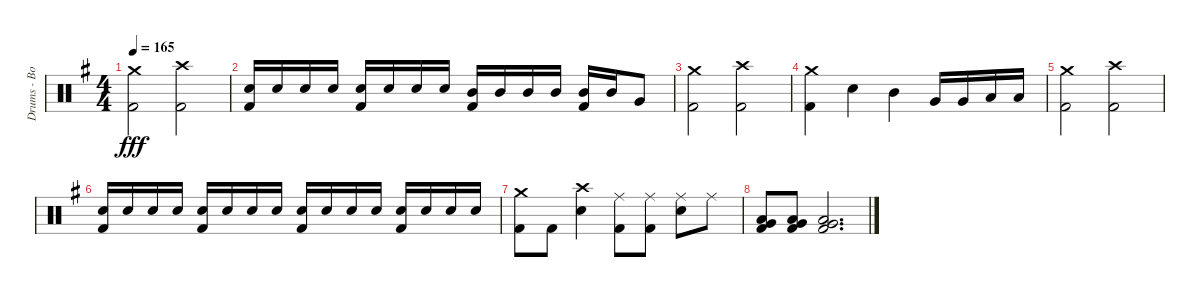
\track ("Drums - Bobby Schayer" "Drums - Bo") {instrument percussion}
\staff {score}
\articulation defaults
\ts (4 4)
\tempo 165
\clef neutral
\ks g
("Crash medium (hit)" "Kick (hit) 2").2{dy fff} ("Crash high (hit)" "Kick (hit) 2").2 |
("Electric Snare (hit)" "Kick (hit) 2").16 "Electric Snare (hit)".16 "Electric Snare (hit)".16 "Electric Snare (hit)".16 ("Electric Snare (hit)" "Kick (hit) 2").16 "Electric Snare (hit)".16 "Electric Snare (hit)".16 "Electric Snare (hit)".16 ("Mid Tom (hit)" "Kick (hit) 2").16 "Mid Tom (hit)".16 "Mid Tom (hit)".16 "Mid Tom (hit)".16 ("Mid Tom (hit)" "Kick (hit) 2").16 "Mid Tom (hit)".16 "Very Low Tom (hit)".8 |
("Crash medium (hit)" "Kick (hit) 2").2 ("Crash high (hit)" "Kick (hit) 2").2 |
("Crash medium (hit)" "Kick (hit) 2").4 "Electric Snare (hit)".4 "Mid Tom (hit)".4 "Very Low Tom (hit)".16 "Very Low Tom (hit)".16 "Low Floor Tom (hit)".16 "Low Floor Tom (hit)".16 |
("Crash medium (hit)" "Kick (hit) 2").2 ("Crash high (hit)" "Kick (hit) 2").2 |
("Electric Snare (hit)" "Kick (hit) 2").16 "Electric Snare (hit)".16 "Electric Snare (hit)".16 "Electric Snare (hit)".16 ("Electric Snare (hit)" "Kick (hit) 2").16 "Electric Snare (hit)".16 "Electric Snare (hit)".16 "Electric Snare (hit)".16 ("Electric Snare (hit)" "Kick (hit) 2").16 "Electric Snare (hit)".16 "Electric Snare (hit)".16 "Electric Snare (hit)".16 ("Electric Snare (hit)" "Kick (hit) 2").16 "Electric Snare (hit)".16 "Electric Snare (hit)".16 "Electric Snare (hit)".16 |
("Crash medium (hit)" "Kick (hit) 2").8 "Kick (hit) 2".8 ("Crash high (hit)" "Electric Snare (hit)").4 ("Ride (middle)" "Kick (hit) 2").8 ("Ride (middle)" "Kick (hit) 2").8 ("Ride (middle)" "Electric Snare (hit)").8 "Ride (middle)".8 |
("Very Low Tom (hit)" "Low Floor Tom (hit)" "Kick (hit) 2").8 ("Very Low Tom (hit)" "Low Floor Tom (hit)" "Kick (hit) 2").8 ("Very Low Tom (hit)" "Low Floor Tom (hit)" "Kick (hit) 2").2{d}
